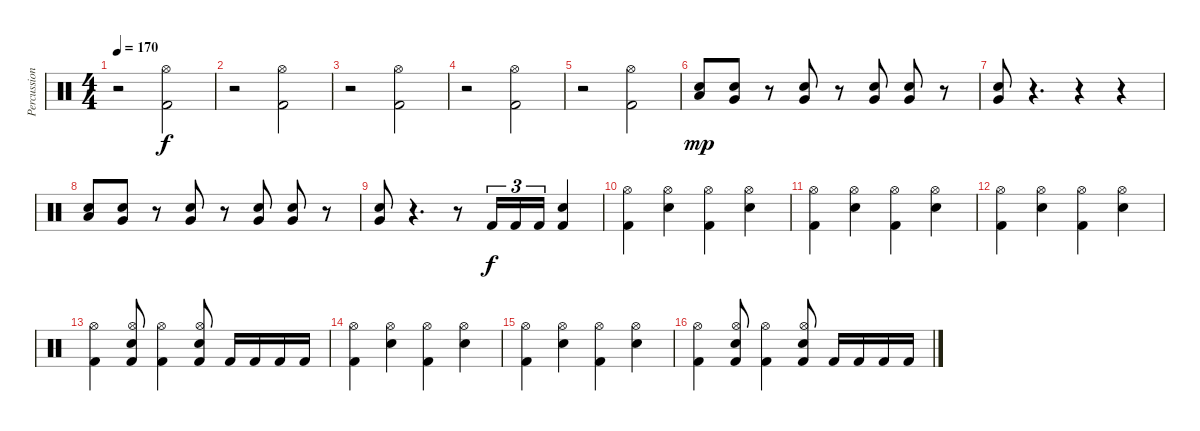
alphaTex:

\track ("Percussion" "Percussion") {instrument percussion}
\staff {score}
\articulation defaults
\ts (4 4)
\tempo 170
\clef neutral
\ks c
r.2{dy f} ("Kick (hit) 2" "Hi-Hat (open)").2 |
r.2 ("Kick (hit) 2" "Hi-Hat (open)").2 |
r.2 ("Kick (hit) 2" "Hi-Hat (open)").2 |
r.2 ("Kick (hit) 2" "Hi-Hat (open)").2 |
r.2 ("Kick (hit) 2" "Hi-Hat (open)").2 |
("Low Tom (hit)" "Snare (hit) 2").8{dy mp} ("Very Low Tom (hit)" "Snare (hit) 2").8 r.8 ("Very Low Tom (hit)" "Snare (hit) 2").8 r.8 ("Very Low Tom (hit)" "Snare (hit) 2").8 ("Very Low Tom (hit)" "Snare (hit) 2").8 r.8 |
("Very Low Tom (hit)" "Snare (hit) 2").8 r.4{d} r.4 r.4 |
("Low Tom (hit)" "Snare (hit) 2").8 ("Very Low Tom (hit)" "Snare (hit) 2").8 r.8 ("Very Low Tom (hit)" "Snare (hit) 2").8 r.8 ("Very Low Tom (hit)" "Snare (hit) 2").8 ("Very Low Tom (hit)" "Snare (hit) 2").8 r.8 |
("Very Low Tom (hit)" "Snare (hit) 2").8 r.4{d} r.8 "Kick (hit) 2".16{tu (3 2) dy f} "Kick (hit) 2".16{tu (3 2)} "Kick (hit) 2".16{tu (3 2)} ("Kick (hit) 2" "Snare (hit) 2").4 |
("Hi-Hat (open)" "Kick (hit) 2").4 ("Hi-Hat (open)" "Snare (hit) 2").4 ("Hi-Hat (open)" "Kick (hit) 2").4 ("Hi-Hat (open)" "Snare (hit) 2").4 |
("Hi-Hat (open)" "Kick (hit) 2").4 ("Hi-Hat (open)" "Snare (hit) 2").4 ("Hi-Hat (open)" "Kick (hit) 2").4 ("Hi-Hat (open)" "Snare (hit) 2").4 |
("Hi-Hat (open)" "Kick (hit) 2").4 ("Hi-Hat (open)" "Snare (hit) 2").4 ("Hi-Hat (open)" "Kick (hit) 2").4 ("Hi-Hat (open)" "Snare (hit) 2").4 |
("Kick (hit) 2" "Hi-Hat (open)").4 ("Hi-Hat (open)" "Snare (hit) 2" "Kick (hit) 2").8 ("Kick (hit) 2" "Hi-Hat (open)").4 ("Hi-Hat (open)" "Snare (hit) 2" "Kick (hit) 2").8 "Kick (hit) 2".16 "Kick (hit) 2".16 "Kick (hit) 2".16 "Kick (hit) 2".16 |
("Hi-Hat (open)" "Kick (hit) 2").4 ("Hi-Hat (open)" "Snare (hit) 2").4 ("Hi-Hat (open)" "Kick (hit) 2").4 ("Hi-Hat (open)" "Snare (hit) 2").4 |
("Hi-Hat (open)" "Kick (hit) 2").4 ("Hi-Hat (open)" "Snare (hit) 2").4 ("Hi-Hat (open)" "Kick (hit) 2").4 ("Hi-Hat (open)" "Snare (hit) 2").4 |
("Kick (hit) 2" "Hi-Hat (open)").4 ("Hi-Hat (open)" "Snare (hit) 2" "Kick (hit) 2").8 ("Kick (hit) 2" "Hi-Hat (open)").4 ("Hi-Hat (open)" "Snare (hit) 2" "Kick (hit) 2").8 "Kick (hit) 2".16 "Kick (hit) 2".16 "Kick (hit) 2".16 "Kick (hit) 2".16
